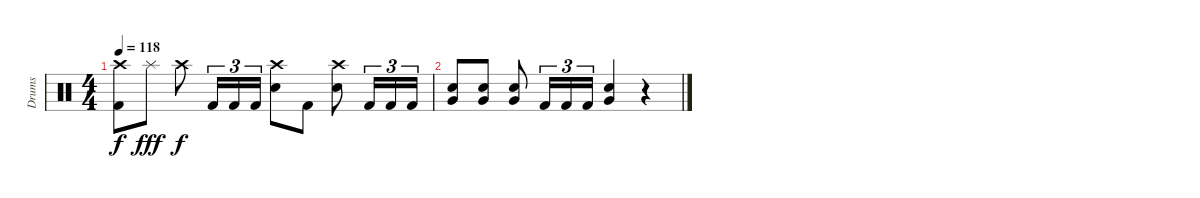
\track ("Drums" "Drums") {instrument percussion}
\staff {score}
\articulation defaults
\ts (4 4)
\tempo 118
\clef neutral
\ks c
("Crash high (hit)" "Kick (hit) 2").8{dy f} "Splash (hit)".8{dy fff} "Crash high (hit)".8{dy f} "Kick (hit) 2".16{tu (3 2)} "Kick (hit) 2".16{tu (3 2)} "Kick (hit) 2".16{tu (3 2)} ("Crash high (hit)" "Electric Snare (hit)").8 "Kick (hit) 2".8 ("Crash high (hit)" "Electric Snare (hit)").8 "Kick (hit) 2".16{tu (3 2)} "Kick (hit) 2".16{tu (3 2)} "Kick (hit) 2".16{tu (3 2)} |
("Electric Snare (hit)" "Very Low Tom (hit)").8 ("Electric Snare (hit)" "Very Low Tom (hit)").8 ("Electric Snare (hit)" "Very Low Tom (hit)").8 "Kick (hit) 2".16{tu (3 2)} "Kick (hit) 2".16{tu (3 2)} "Kick (hit) 2".16{tu (3 2)} ("Electric Snare (hit)" "Very Low Tom (hit)").4 r.4
